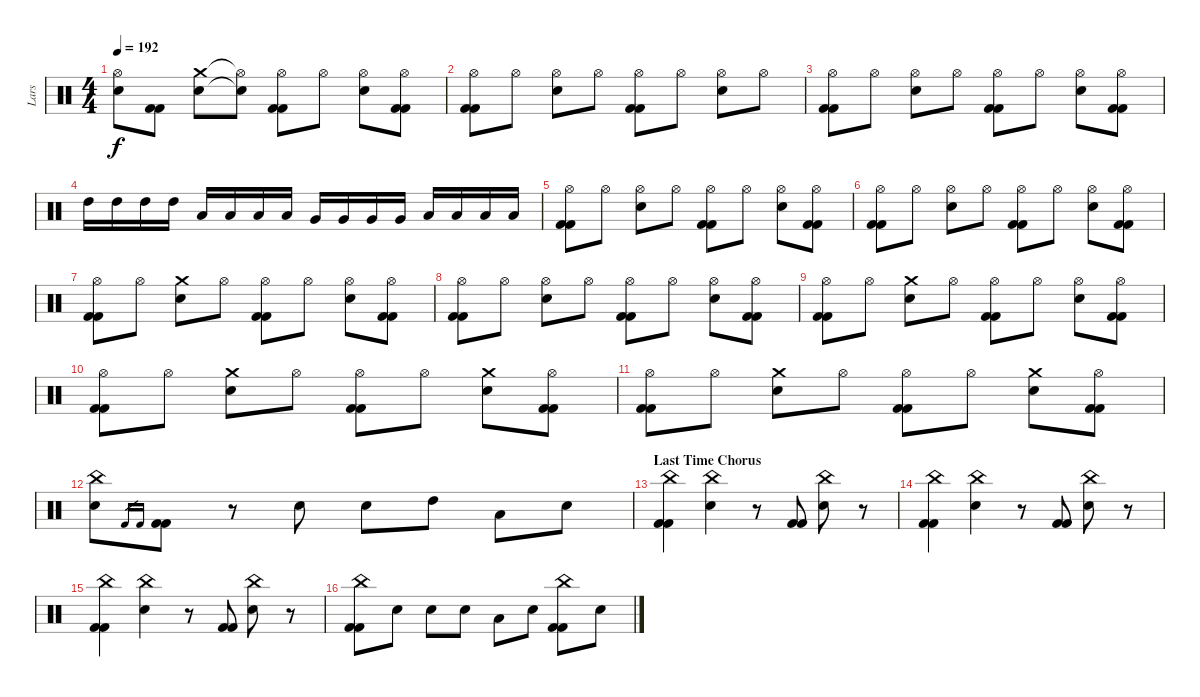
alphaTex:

\track ("Lars" "Lars") {instrument percussion}
\staff {score}
\articulation defaults
\ts (4 4)
\tempo 192
\clef neutral
\ks c
("Hi-Hat (open)" "Electric Snare (hit)").8{dy f} ("Kick (hit) 2" "Kick (hit) 2").8 ("Electric Snare (hit)" "Crash medium (hit)").8 ("Snare (hit)"{t} "Hi-Hat (open)"{t}).8 ("Hi-Hat (open)" "Kick (hit) 2" "Kick (hit) 2").8 "Hi-Hat (open)".8 ("Electric Snare (hit)" "Hi-Hat (open)").8 ("Hi-Hat (open)" "Kick (hit) 2" "Kick (hit) 2").8 |
("Hi-Hat (open)" "Kick (hit) 2" "Kick (hit) 2").8 "Hi-Hat (open)".8 ("Electric Snare (hit)" "Hi-Hat (open)").8 "Hi-Hat (open)".8 ("Hi-Hat (open)" "Kick (hit) 2" "Kick (hit) 2").8 "Hi-Hat (open)".8 ("Electric Snare (hit)" "Hi-Hat (open)").8 "Hi-Hat (open)".8 |
("Hi-Hat (open)" "Kick (hit) 2" "Kick (hit) 2").8 "Hi-Hat (open)".8 ("Electric Snare (hit)" "Hi-Hat (open)").8 "Hi-Hat (open)".8 ("Hi-Hat (open)" "Kick (hit) 2" "Kick (hit) 2").8 "Hi-Hat (open)".8 ("Electric Snare (hit)" "Hi-Hat (open)").8 ("Hi-Hat (open)" "Kick (hit) 2" "Kick (hit) 2").8 |
"High Tom (hit)".16 "High Tom (hit)".16 "High Tom (hit)".16 "High Tom (hit)".16 "Low Tom (hit)".16 "Low Tom (hit)".16 "Low Tom (hit)".16 "Low Tom (hit)".16 "Very Low Tom (hit)".16 "Very Low Tom (hit)".16 "Very Low Tom (hit)".16 "Very Low Tom (hit)".16 "Low Floor Tom (hit)".16 "Low Floor Tom (hit)".16 "Low Floor Tom (hit)".16 "Low Floor Tom (hit)".16 |
("Hi-Hat (open)" "Kick (hit) 2" "Kick (hit) 2").8 "Hi-Hat (open)".8 ("Electric Snare (hit)" "Hi-Hat (open)").8 "Hi-Hat (open)".8 ("Hi-Hat (open)" "Kick (hit) 2" "Kick (hit) 2").8 "Hi-Hat (open)".8 ("Electric Snare (hit)" "Hi-Hat (open)").8 ("Hi-Hat (open)" "Kick (hit) 2" "Kick (hit) 2").8 |
("Hi-Hat (open)" "Kick (hit) 2" "Kick (hit) 2").8 "Hi-Hat (open)".8 ("Electric Snare (hit)" "Hi-Hat (open)").8 "Hi-Hat (open)".8 ("Hi-Hat (open)" "Kick (hit) 2" "Kick (hit) 2").8 "Hi-Hat (open)".8 ("Electric Snare (hit)" "Hi-Hat (open)").8 ("Kick (hit) 2" "Kick (hit) 2" "Hi-Hat (open)").8 |
("Hi-Hat (open)" "Kick (hit) 2" "Kick (hit) 2").8 "Hi-Hat (open)".8 ("Electric Snare (hit)" "Crash medium (hit)").8 "Hi-Hat (open)".8 ("Hi-Hat (open)" "Kick (hit) 2" "Kick (hit) 2").8 "Hi-Hat (open)".8 ("Electric Snare (hit)" "Hi-Hat (open)").8 ("Hi-Hat (open)" "Kick (hit) 2" "Kick (hit) 2").8 |
("Hi-Hat (open)" "Kick (hit) 2" "Kick (hit) 2").8 "Hi-Hat (open)".8 ("Electric Snare (hit)" "Hi-Hat (open)").8 "Hi-Hat (open)".8 ("Hi-Hat (open)" "Kick (hit) 2" "Kick (hit) 2").8 "Hi-Hat (open)".8 ("Electric Snare (hit)" "Hi-Hat (open)").8 ("Kick (hit) 2" "Kick (hit) 2" "Hi-Hat (open)").8 |
("Hi-Hat (open)" "Kick (hit) 2" "Kick (hit) 2").8 "Hi-Hat (open)".8 ("Electric Snare (hit)" "Crash medium (hit)").8 "Hi-Hat (open)".8 ("Hi-Hat (open)" "Kick (hit) 2" "Kick (hit) 2").8 "Hi-Hat (open)".8 ("Electric Snare (hit)" "Hi-Hat (open)").8 ("Hi-Hat (open)" "Kick (hit) 2" "Kick (hit) 2").8 |
("Hi-Hat (open)" "Kick (hit) 2" "Kick (hit) 2").8 "Hi-Hat (open)".8 ("Electric Snare (hit)" "Crash medium (hit)").8 "Hi-Hat (open)".8 ("Hi-Hat (open)" "Kick (hit) 2" "Kick (hit) 2").8 "Hi-Hat (open)".8 ("Electric Snare (hit)" "Crash medium (hit)").8 ("Hi-Hat (open)" "Kick (hit) 2" "Kick (hit) 2").8 |
("Hi-Hat (open)" "Kick (hit) 2" "Kick (hit) 2").8 "Hi-Hat (open)".8 ("Electric Snare (hit)" "Crash medium (hit)").8 "Hi-Hat (open)".8 ("Hi-Hat (open)" "Kick (hit) 2" "Kick (hit) 2").8 "Hi-Hat (open)".8 ("Electric Snare (hit)" "Crash medium (hit)").8 ("Hi-Hat (open)" "Kick (hit) 2" "Kick (hit) 2").8 |
("Electric Snare (hit)" "China (hit)").8 "Kick (hit) 2".16{gr} "Kick (hit) 2".16{gr} ("Kick (hit) 2" "Kick (hit) 2").8 r.8 "Electric Snare (hit)".8 "Electric Snare (hit)".8 "High Tom (hit)".8 "Low Tom (hit)".8 "Electric Snare (hit)".8 |
\section ("" "Last Time Chorus")
("China (hit)" "Kick (hit) 2" "Kick (hit) 2").4 ("Electric Snare (hit)" "China (hit)").4 r.8 ("Kick (hit) 2" "Kick (hit) 2").8 ("Electric Snare (hit)" "China (hit)").8 r.8 |
("China (hit)" "Kick (hit) 2" "Kick (hit) 2").4 ("Electric Snare (hit)" "China (hit)").4 r.8 ("Kick (hit) 2" "Kick (hit) 2").8 ("Electric Snare (hit)" "China (hit)").8 r.8 |
("China (hit)" "Kick (hit) 2" "Kick (hit) 2").4 ("Electric Snare (hit)" "China (hit)").4 r.8 ("Kick (hit) 2" "Kick (hit) 2").8 ("Electric Snare (hit)" "China (hit)").8 r.8 |
("China (hit)" "Kick (hit) 2" "Kick (hit) 2").8 "Electric Snare (hit)".8 "Electric Snare (hit)".8 "Electric Snare (hit)".8 "Low Tom (hit)".8 "Electric Snare (hit)".8 ("Kick (hit) 2" "Kick (hit) 2" "China (hit)").8 "Electric Snare (hit)".8
